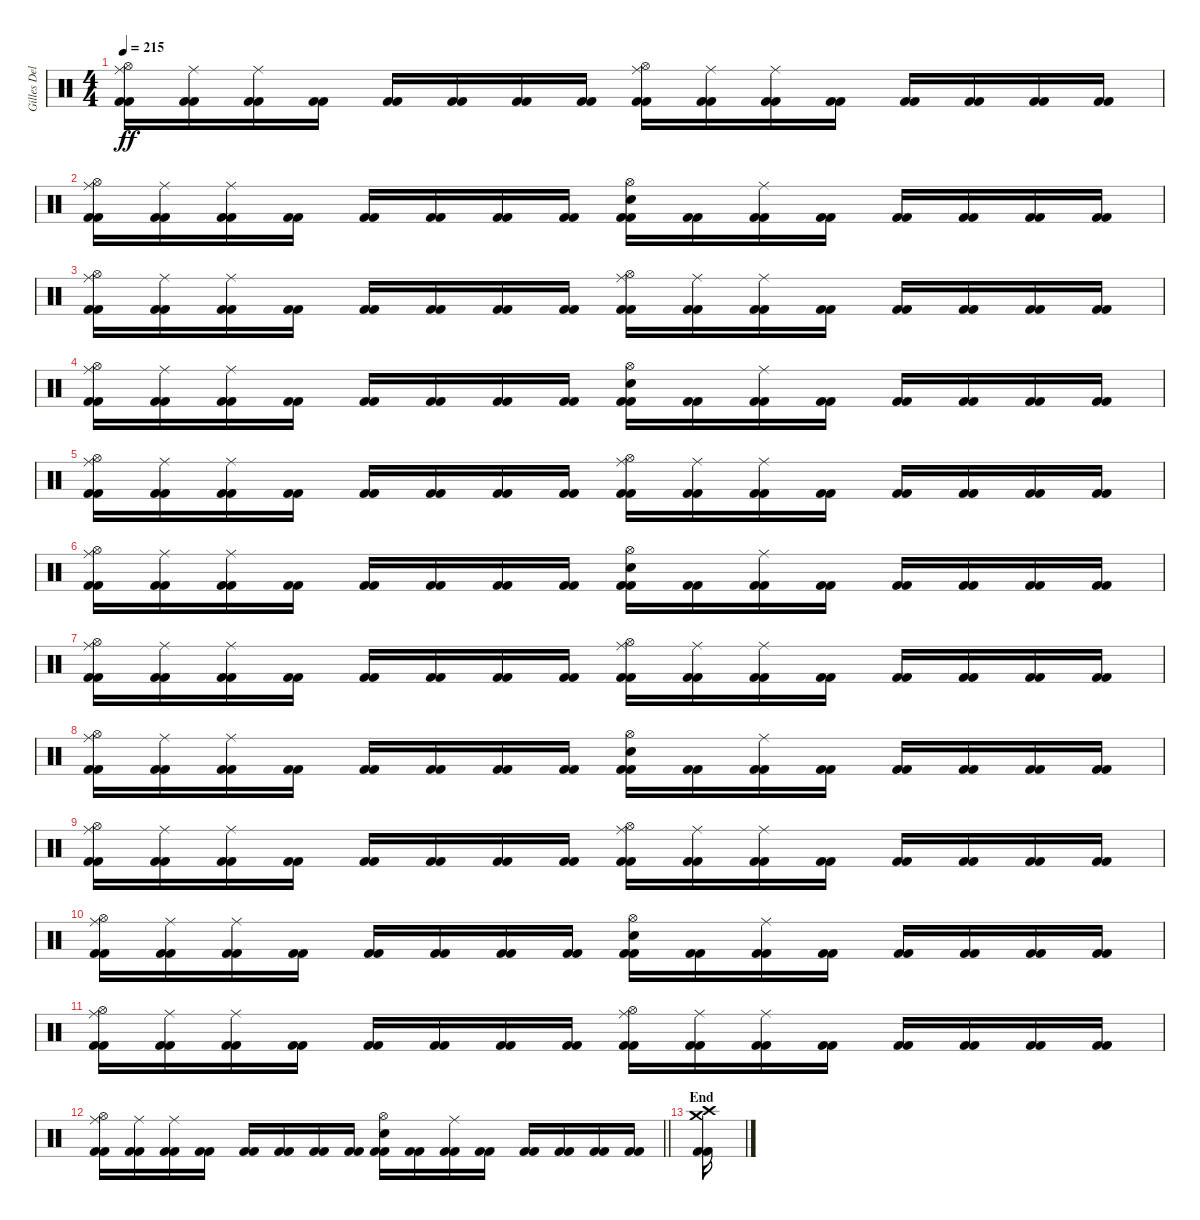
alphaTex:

\track ("Gilles Delecroix" "Gilles Del") {instrument percussion}
\staff {score}
\articulation defaults
\ts (4 4)
\tempo 215
\clef neutral
\ks c
("Ride (middle)" "Hi-Hat (open)" "Kick (hit) 2" "Kick (hit) 2").16{dy ff} ("Ride (middle)" "Kick (hit) 2" "Kick (hit) 2").16 ("Ride (middle)" "Kick (hit) 2" "Kick (hit) 2").16 ("Kick (hit) 2" "Kick (hit) 2").16 ("Kick (hit) 2" "Kick (hit) 2").16 ("Kick (hit) 2" "Kick (hit) 2").16 ("Kick (hit) 2" "Kick (hit) 2").16 ("Kick (hit) 2" "Kick (hit) 2").16 ("Ride (middle)" "Hi-Hat (open)" "Kick (hit) 2" "Kick (hit) 2").16 ("Ride (middle)" "Kick (hit) 2" "Kick (hit) 2").16 ("Ride (middle)" "Kick (hit) 2" "Kick (hit) 2").16 ("Kick (hit) 2" "Kick (hit) 2").16 ("Kick (hit) 2" "Kick (hit) 2").16 ("Kick (hit) 2" "Kick (hit) 2").16 ("Kick (hit) 2" "Kick (hit) 2").16 ("Kick (hit) 2" "Kick (hit) 2").16 |
("Ride (middle)" "Hi-Hat (open)" "Kick (hit) 2" "Kick (hit) 2").16 ("Ride (middle)" "Kick (hit) 2" "Kick (hit) 2").16 ("Ride (middle)" "Kick (hit) 2" "Kick (hit) 2").16 ("Kick (hit) 2" "Kick (hit) 2").16 ("Kick (hit) 2" "Kick (hit) 2").16 ("Kick (hit) 2" "Kick (hit) 2").16 ("Kick (hit) 2" "Kick (hit) 2").16 ("Kick (hit) 2" "Kick (hit) 2").16 ("Electric Snare (hit)" "Hi-Hat (open)" "Kick (hit) 2" "Kick (hit) 2").16 ("Kick (hit) 2" "Kick (hit) 2").16 ("Ride (middle)" "Kick (hit) 2" "Kick (hit) 2").16 ("Kick (hit) 2" "Kick (hit) 2").16 ("Kick (hit) 2" "Kick (hit) 2").16 ("Kick (hit) 2" "Kick (hit) 2").16 ("Kick (hit) 2" "Kick (hit) 2").16 ("Kick (hit) 2" "Kick (hit) 2").16 |
("Ride (middle)" "Hi-Hat (open)" "Kick (hit) 2" "Kick (hit) 2").16 ("Ride (middle)" "Kick (hit) 2" "Kick (hit) 2").16 ("Ride (middle)" "Kick (hit) 2" "Kick (hit) 2").16 ("Kick (hit) 2" "Kick (hit) 2").16 ("Kick (hit) 2" "Kick (hit) 2").16 ("Kick (hit) 2" "Kick (hit) 2").16 ("Kick (hit) 2" "Kick (hit) 2").16 ("Kick (hit) 2" "Kick (hit) 2").16 ("Ride (middle)" "Hi-Hat (open)" "Kick (hit) 2" "Kick (hit) 2").16 ("Ride (middle)" "Kick (hit) 2" "Kick (hit) 2").16 ("Ride (middle)" "Kick (hit) 2" "Kick (hit) 2").16 ("Kick (hit) 2" "Kick (hit) 2").16 ("Kick (hit) 2" "Kick (hit) 2").16 ("Kick (hit) 2" "Kick (hit) 2").16 ("Kick (hit) 2" "Kick (hit) 2").16 ("Kick (hit) 2" "Kick (hit) 2").16 |
("Ride (middle)" "Hi-Hat (open)" "Kick (hit) 2" "Kick (hit) 2").16 ("Ride (middle)" "Kick (hit) 2" "Kick (hit) 2").16 ("Ride (middle)" "Kick (hit) 2" "Kick (hit) 2").16 ("Kick (hit) 2" "Kick (hit) 2").16 ("Kick (hit) 2" "Kick (hit) 2").16 ("Kick (hit) 2" "Kick (hit) 2").16 ("Kick (hit) 2" "Kick (hit) 2").16 ("Kick (hit) 2" "Kick (hit) 2").16 ("Electric Snare (hit)" "Hi-Hat (open)" "Kick (hit) 2" "Kick (hit) 2").16 ("Kick (hit) 2" "Kick (hit) 2").16 ("Ride (middle)" "Kick (hit) 2" "Kick (hit) 2").16 ("Kick (hit) 2" "Kick (hit) 2").16 ("Kick (hit) 2" "Kick (hit) 2").16 ("Kick (hit) 2" "Kick (hit) 2").16 ("Kick (hit) 2" "Kick (hit) 2").16 ("Kick (hit) 2" "Kick (hit) 2").16 |
("Ride (middle)" "Hi-Hat (open)" "Kick (hit) 2" "Kick (hit) 2").16 ("Ride (middle)" "Kick (hit) 2" "Kick (hit) 2").16 ("Ride (middle)" "Kick (hit) 2" "Kick (hit) 2").16 ("Kick (hit) 2" "Kick (hit) 2").16 ("Kick (hit) 2" "Kick (hit) 2").16 ("Kick (hit) 2" "Kick (hit) 2").16 ("Kick (hit) 2" "Kick (hit) 2").16 ("Kick (hit) 2" "Kick (hit) 2").16 ("Ride (middle)" "Hi-Hat (open)" "Kick (hit) 2" "Kick (hit) 2").16 ("Ride (middle)" "Kick (hit) 2" "Kick (hit) 2").16 ("Ride (middle)" "Kick (hit) 2" "Kick (hit) 2").16 ("Kick (hit) 2" "Kick (hit) 2").16 ("Kick (hit) 2" "Kick (hit) 2").16 ("Kick (hit) 2" "Kick (hit) 2").16 ("Kick (hit) 2" "Kick (hit) 2").16 ("Kick (hit) 2" "Kick (hit) 2").16 |
("Ride (middle)" "Hi-Hat (open)" "Kick (hit) 2" "Kick (hit) 2").16 ("Ride (middle)" "Kick (hit) 2" "Kick (hit) 2").16 ("Ride (middle)" "Kick (hit) 2" "Kick (hit) 2").16 ("Kick (hit) 2" "Kick (hit) 2").16 ("Kick (hit) 2" "Kick (hit) 2").16 ("Kick (hit) 2" "Kick (hit) 2").16 ("Kick (hit) 2" "Kick (hit) 2").16 ("Kick (hit) 2" "Kick (hit) 2").16 ("Electric Snare (hit)" "Hi-Hat (open)" "Kick (hit) 2" "Kick (hit) 2").16 ("Kick (hit) 2" "Kick (hit) 2").16 ("Ride (middle)" "Kick (hit) 2" "Kick (hit) 2").16 ("Kick (hit) 2" "Kick (hit) 2").16 ("Kick (hit) 2" "Kick (hit) 2").16 ("Kick (hit) 2" "Kick (hit) 2").16 ("Kick (hit) 2" "Kick (hit) 2").16 ("Kick (hit) 2" "Kick (hit) 2").16 |
("Ride (middle)" "Hi-Hat (open)" "Kick (hit) 2" "Kick (hit) 2").16 ("Ride (middle)" "Kick (hit) 2" "Kick (hit) 2").16 ("Ride (middle)" "Kick (hit) 2" "Kick (hit) 2").16 ("Kick (hit) 2" "Kick (hit) 2").16 ("Kick (hit) 2" "Kick (hit) 2").16 ("Kick (hit) 2" "Kick (hit) 2").16 ("Kick (hit) 2" "Kick (hit) 2").16 ("Kick (hit) 2" "Kick (hit) 2").16 ("Ride (middle)" "Hi-Hat (open)" "Kick (hit) 2" "Kick (hit) 2").16 ("Ride (middle)" "Kick (hit) 2" "Kick (hit) 2").16 ("Ride (middle)" "Kick (hit) 2" "Kick (hit) 2").16 ("Kick (hit) 2" "Kick (hit) 2").16 ("Kick (hit) 2" "Kick (hit) 2").16 ("Kick (hit) 2" "Kick (hit) 2").16 ("Kick (hit) 2" "Kick (hit) 2").16 ("Kick (hit) 2" "Kick (hit) 2").16 |
("Ride (middle)" "Hi-Hat (open)" "Kick (hit) 2" "Kick (hit) 2").16 ("Ride (middle)" "Kick (hit) 2" "Kick (hit) 2").16 ("Ride (middle)" "Kick (hit) 2" "Kick (hit) 2").16 ("Kick (hit) 2" "Kick (hit) 2").16 ("Kick (hit) 2" "Kick (hit) 2").16 ("Kick (hit) 2" "Kick (hit) 2").16 ("Kick (hit) 2" "Kick (hit) 2").16 ("Kick (hit) 2" "Kick (hit) 2").16 ("Electric Snare (hit)" "Hi-Hat (open)" "Kick (hit) 2" "Kick (hit) 2").16 ("Kick (hit) 2" "Kick (hit) 2").16 ("Ride (middle)" "Kick (hit) 2" "Kick (hit) 2").16 ("Kick (hit) 2" "Kick (hit) 2").16 ("Kick (hit) 2" "Kick (hit) 2").16 ("Kick (hit) 2" "Kick (hit) 2").16 ("Kick (hit) 2" "Kick (hit) 2").16 ("Kick (hit) 2" "Kick (hit) 2").16 |
("Ride (middle)" "Hi-Hat (open)" "Kick (hit) 2" "Kick (hit) 2").16 ("Ride (middle)" "Kick (hit) 2" "Kick (hit) 2").16 ("Ride (middle)" "Kick (hit) 2" "Kick (hit) 2").16 ("Kick (hit) 2" "Kick (hit) 2").16 ("Kick (hit) 2" "Kick (hit) 2").16 ("Kick (hit) 2" "Kick (hit) 2").16 ("Kick (hit) 2" "Kick (hit) 2").16 ("Kick (hit) 2" "Kick (hit) 2").16 ("Ride (middle)" "Hi-Hat (open)" "Kick (hit) 2" "Kick (hit) 2").16 ("Ride (middle)" "Kick (hit) 2" "Kick (hit) 2").16 ("Ride (middle)" "Kick (hit) 2" "Kick (hit) 2").16 ("Kick (hit) 2" "Kick (hit) 2").16 ("Kick (hit) 2" "Kick (hit) 2").16 ("Kick (hit) 2" "Kick (hit) 2").16 ("Kick (hit) 2" "Kick (hit) 2").16 ("Kick (hit) 2" "Kick (hit) 2").16 |
("Ride (middle)" "Hi-Hat (open)" "Kick (hit) 2" "Kick (hit) 2").16 ("Ride (middle)" "Kick (hit) 2" "Kick (hit) 2").16 ("Ride (middle)" "Kick (hit) 2" "Kick (hit) 2").16 ("Kick (hit) 2" "Kick (hit) 2").16 ("Kick (hit) 2" "Kick (hit) 2").16 ("Kick (hit) 2" "Kick (hit) 2").16 ("Kick (hit) 2" "Kick (hit) 2").16 ("Kick (hit) 2" "Kick (hit) 2").16 ("Electric Snare (hit)" "Hi-Hat (open)" "Kick (hit) 2" "Kick (hit) 2").16 ("Kick (hit) 2" "Kick (hit) 2").16 ("Ride (middle)" "Kick (hit) 2" "Kick (hit) 2").16 ("Kick (hit) 2" "Kick (hit) 2").16 ("Kick (hit) 2" "Kick (hit) 2").16 ("Kick (hit) 2" "Kick (hit) 2").16 ("Kick (hit) 2" "Kick (hit) 2").16 ("Kick (hit) 2" "Kick (hit) 2").16 |
("Ride (middle)" "Hi-Hat (open)" "Kick (hit) 2" "Kick (hit) 2").16 ("Ride (middle)" "Kick (hit) 2" "Kick (hit) 2").16 ("Ride (middle)" "Kick (hit) 2" "Kick (hit) 2").16 ("Kick (hit) 2" "Kick (hit) 2").16 ("Kick (hit) 2" "Kick (hit) 2").16 ("Kick (hit) 2" "Kick (hit) 2").16 ("Kick (hit) 2" "Kick (hit) 2").16 ("Kick (hit) 2" "Kick (hit) 2").16 ("Ride (middle)" "Hi-Hat (open)" "Kick (hit) 2" "Kick (hit) 2").16 ("Ride (middle)" "Kick (hit) 2" "Kick (hit) 2").16 ("Ride (middle)" "Kick (hit) 2" "Kick (hit) 2").16 ("Kick (hit) 2" "Kick (hit) 2").16 ("Kick (hit) 2" "Kick (hit) 2").16 ("Kick (hit) 2" "Kick (hit) 2").16 ("Kick (hit) 2" "Kick (hit) 2").16 ("Kick (hit) 2" "Kick (hit) 2").16 |
\barLineRight lightlight
("Ride (middle)" "Hi-Hat (open)" "Kick (hit) 2" "Kick (hit) 2").16 ("Ride (middle)" "Kick (hit) 2" "Kick (hit) 2").16 ("Ride (middle)" "Kick (hit) 2" "Kick (hit) 2").16 ("Kick (hit) 2" "Kick (hit) 2").16 ("Kick (hit) 2" "Kick (hit) 2").16 ("Kick (hit) 2" "Kick (hit) 2").16 ("Kick (hit) 2" "Kick (hit) 2").16 ("Kick (hit) 2" "Kick (hit) 2").16 ("Electric Snare (hit)" "Hi-Hat (open)" "Kick (hit) 2" "Kick (hit) 2").16 ("Kick (hit) 2" "Kick (hit) 2").16 ("Ride (middle)" "Kick (hit) 2" "Kick (hit) 2").16 ("Kick (hit) 2" "Kick (hit) 2").16 ("Kick (hit) 2" "Kick (hit) 2").16 ("Kick (hit) 2" "Kick (hit) 2").16 ("Kick (hit) 2" "Kick (hit) 2").16 ("Kick (hit) 2" "Kick (hit) 2").16 |
\section ("" "End")
("Crash high (hit)" "Crash medium (hit)" "Kick (hit) 2" "Kick (hit) 2").16
